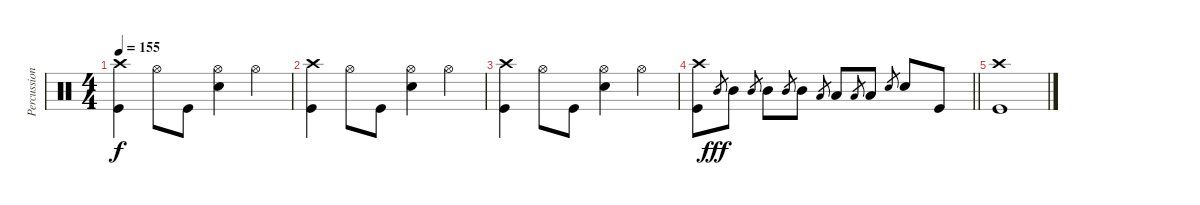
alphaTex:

\track ("Percussion" "Percussion") {instrument percussion}
\staff {score}
\articulation defaults
\ts (4 4)
\tempo 155
\clef neutral
\ks c
("Crash high (hit)" "Kick (hit)").4{dy f} "Hi-Hat (open)".8 "Kick (hit)".8 ("Hi-Hat (open)" "Electric Snare (hit)").4 "Hi-Hat (open)".4 |
("Crash high (hit)" "Kick (hit)").4 "Hi-Hat (open)".8 "Kick (hit)".8 ("Hi-Hat (open)" "Electric Snare (hit)").4 "Hi-Hat (open)".4 |
("Crash high (hit)" "Kick (hit)").4 "Hi-Hat (open)".8 "Kick (hit)".8 ("Hi-Hat (open)" "Electric Snare (hit)").4 "Hi-Hat (open)".4 |
\barLineRight lightlight
("Crash high (hit)" "Kick (hit)").8 "Mid Tom (hit)".8{gr dy fff} "Mid Tom (hit)".8 "Mid Tom (hit)".8{gr} "Mid Tom (hit)".8 "Mid Tom (hit)".8{gr} "Mid Tom (hit)".8 "Low Tom (hit)".8{gr} "Low Tom (hit)".8 "Low Tom (hit)".8{gr} "Low Tom (hit)".8 "Electric Snare (hit)".8{gr} "Electric Snare (hit)".8 "Kick (hit)".8 |
("Crash high (hit)" "Kick (hit)").1
